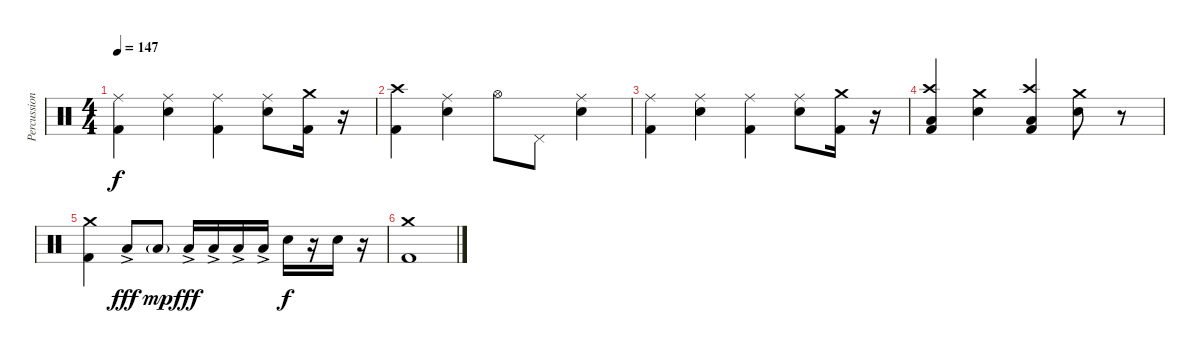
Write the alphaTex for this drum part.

\track ("Percussions" "Percussion") {instrument percussion}
\staff {score}
\articulation defaults
\ts (4 4)
\tempo 147
\clef neutral
\ks c
("Ride (middle)" "Kick (hit) 2").4{dy f} ("Ride (middle)" "Electric Snare (hit)").4 ("Ride (middle)" "Kick (hit) 2").4 ("Ride (middle)" "Electric Snare (hit)").8 ("Crash medium (hit)" "Kick (hit) 2").16 r.16 |
("Crash high (hit)" "Kick (hit) 2").4 ("Ride (middle)" "Electric Snare (hit)").4 "Hi-Hat (open)".8 "Pedal Hi-Hat (hit)".8 ("Ride (middle)" "Electric Snare (hit)").4 |
("Ride (middle)" "Kick (hit) 2").4 ("Ride (middle)" "Electric Snare (hit)").4 ("Ride (middle)" "Kick (hit) 2").4 ("Ride (middle)" "Electric Snare (hit)").8 ("Crash medium (hit)" "Kick (hit) 2").16 r.16 |
("Crash high (hit)" "Low Tom (hit)" "Kick (hit) 2").4 ("Crash medium (hit)" "Electric Snare (hit)").4 ("Crash high (hit)" "Low Tom (hit)" "Kick (hit) 2").4 ("Crash medium (hit)" "Electric Snare (hit)").8 r.8 |
("Crash medium (hit)" "Kick (hit) 2").4 "Low Tom (hit)"{ac}.8{dy fff} "Low Tom (hit)"{g}.8{dy mp} "Low Tom (hit)"{ac}.16{dy fff} "Low Tom (hit)"{ac}.16 "Low Tom (hit)"{ac}.16 "Low Tom (hit)"{ac}.16 "Electric Snare (hit)".16{dy f} r.16 "Electric Snare (hit)".16 r.16 |
("Crash medium (hit)" "Kick (hit) 2").1
